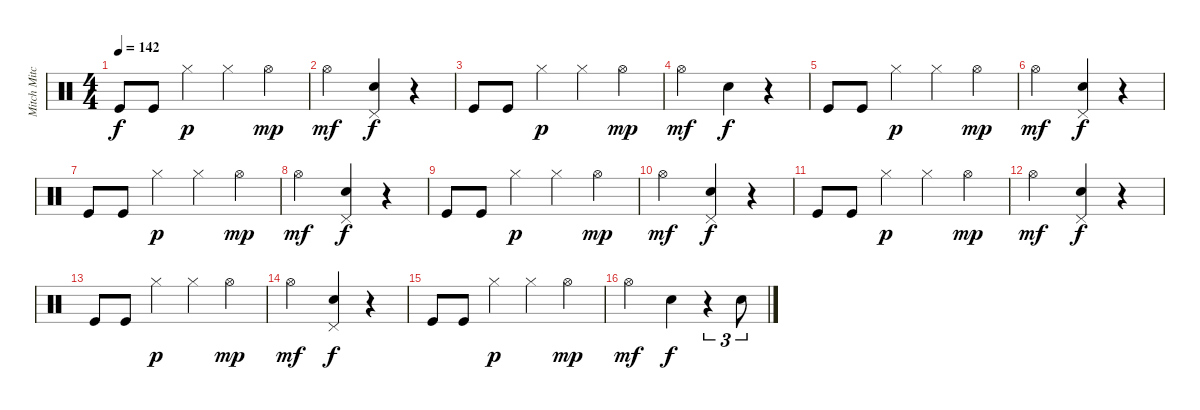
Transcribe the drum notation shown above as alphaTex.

\track ("Mitch Mitchell" "Mitch Mitc") {instrument percussion}
\staff {score}
\articulation defaults
\ts (4 4)
\tempo 142
\clef neutral
\ks c "Kick (hit)".8{dy f} "Kick (hit)".8 "Hi-Hat (closed)".4{dy p} "Hi-Hat (closed)".4 "Hi-Hat (open)".4{dy mp}
|
"Hi-Hat (open)".2{dy mf} ("Pedal Hi-Hat (hit)" "Electric Snare (hit)").4{dy f} r.4 |
"Kick (hit)".8 "Kick (hit)".8 "Hi-Hat (closed)".4{dy p} "Hi-Hat (closed)".4 "Hi-Hat (open)".4{dy mp} |
"Hi-Hat (open)".2{dy mf} "Electric Snare (hit)".4{dy f} r.4 |
"Kick (hit)".8 "Kick (hit)".8 "Hi-Hat (closed)".4{dy p} "Hi-Hat (closed)".4 "Hi-Hat (open)".4{dy mp} |
"Hi-Hat (open)".2{dy mf} ("Pedal Hi-Hat (hit)" "Electric Snare (hit)").4{dy f} r.4 |
"Kick (hit)".8 "Kick (hit)".8 "Hi-Hat (closed)".4{dy p} "Hi-Hat (closed)".4 "Hi-Hat (open)".4{dy mp} |
"Hi-Hat (open)".2{dy mf} ("Pedal Hi-Hat (hit)" "Electric Snare (hit)").4{dy f} r.4 |
"Kick (hit)".8 "Kick (hit)".8 "Hi-Hat (closed)".4{dy p} "Hi-Hat (closed)".4 "Hi-Hat (open)".4{dy mp} |
"Hi-Hat (open)".2{dy mf} ("Pedal Hi-Hat (hit)" "Electric Snare (hit)").4{dy f} r.4 |
"Kick (hit)".8 "Kick (hit)".8 "Hi-Hat (closed)".4{dy p} "Hi-Hat (closed)".4 "Hi-Hat (open)".4{dy mp} |
"Hi-Hat (open)".2{dy mf} ("Pedal Hi-Hat (hit)" "Electric Snare (hit)").4{dy f} r.4 |
"Kick (hit)".8 "Kick (hit)".8 "Hi-Hat (closed)".4{dy p} "Hi-Hat (closed)".4 "Hi-Hat (open)".4{dy mp} |
"Hi-Hat (open)".2{dy mf} ("Pedal Hi-Hat (hit)" "Electric Snare (hit)").4{dy f} r.4 |
"Kick (hit)".8 "Kick (hit)".8 "Hi-Hat (closed)".4{dy p} "Hi-Hat (closed)".4 "Hi-Hat (open)".4{dy mp} |
"Hi-Hat (open)".2{dy mf} "Electric Snare (hit)".4{dy f} r.4{tu (3 2)} "Electric Snare (hit)".8{tu (3 2)}
